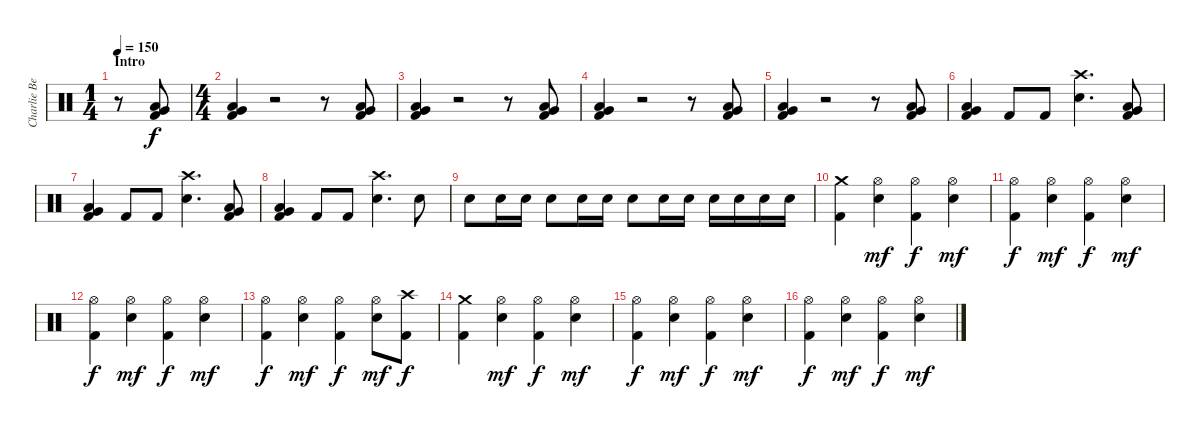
\track ("Charlie Benante" "Charlie Be") {instrument percussion}
\staff {score}
\articulation defaults
\ts (1 4)
\section ("" "Intro")
\tempo 150
\clef neutral
\ks c
r.8{dy f} ("Kick (hit) 2" "Low Tom (hit)" "Very Low Tom (hit)").8 |
\ts (4 4)
("Kick (hit) 2" "Low Tom (hit)" "Very Low Tom (hit)").4 r.2 r.8 ("Kick (hit) 2" "Low Tom (hit)" "Very Low Tom (hit)").8 |
("Kick (hit) 2" "Low Tom (hit)" "Very Low Tom (hit)").4 r.2 r.8 ("Kick (hit) 2" "Low Tom (hit)" "Very Low Tom (hit)").8 |
("Kick (hit) 2" "Low Tom (hit)" "Very Low Tom (hit)").4 r.2 r.8 ("Kick (hit) 2" "Low Tom (hit)" "Very Low Tom (hit)").8 |
("Kick (hit) 2" "Low Tom (hit)" "Very Low Tom (hit)").4 r.2 r.8 ("Kick (hit) 2" "Low Tom (hit)" "Very Low Tom (hit)").8 |
("Kick (hit) 2" "Low Tom (hit)" "Very Low Tom (hit)").4 "Kick (hit) 2".8 "Kick (hit) 2".8 ("Crash high (hit)" "Snare (hit) 2").4{d} ("Kick (hit) 2" "Low Tom (hit)" "Very Low Tom (hit)").8 |
("Kick (hit) 2" "Low Tom (hit)" "Very Low Tom (hit)").4 "Kick (hit) 2".8 "Kick (hit) 2".8 ("Crash high (hit)" "Snare (hit) 2").4{d} ("Kick (hit) 2" "Low Tom (hit)" "Very Low Tom (hit)").8 |
("Kick (hit) 2" "Low Tom (hit)" "Very Low Tom (hit)").4 "Kick (hit) 2".8 "Kick (hit) 2".8 ("Crash high (hit)" "Snare (hit) 2").4{d} "Snare (hit) 2".8 |
"Snare (hit) 2".8 "Snare (hit) 2".16 "Snare (hit) 2".16 "Snare (hit) 2".8 "Snare (hit) 2".16 "Snare (hit) 2".16 "Snare (hit) 2".8 "Snare (hit) 2".16 "Snare (hit) 2".16 "Snare (hit) 2".16 "Snare (hit) 2".16 "Snare (hit) 2".16 "Snare (hit) 2".16 |
("Kick (hit) 2" "Crash medium (hit)").4 ("Hi-Hat (open)" "Snare (hit) 2").4{dy mf} ("Kick (hit) 2" "Hi-Hat (open)").4{dy f} ("Hi-Hat (open)" "Snare (hit) 2").4{dy mf} |
("Kick (hit) 2" "Hi-Hat (open)").4{dy f} ("Hi-Hat (open)" "Snare (hit) 2").4{dy mf} ("Kick (hit) 2" "Hi-Hat (open)").4{dy f} ("Hi-Hat (open)" "Snare (hit) 2").4{dy mf} |
("Kick (hit) 2" "Hi-Hat (open)").4{dy f} ("Hi-Hat (open)" "Snare (hit) 2").4{dy mf} ("Kick (hit) 2" "Hi-Hat (open)").4{dy f} ("Hi-Hat (open)" "Snare (hit) 2").4{dy mf} |
("Kick (hit) 2" "Hi-Hat (open)").4{dy f} ("Hi-Hat (open)" "Snare (hit) 2").4{dy mf} ("Kick (hit) 2" "Hi-Hat (open)").4{dy f} ("Hi-Hat (open)" "Snare (hit) 2").8{dy mf} ("Kick (hit) 2" "Crash high (hit)").8{dy f} |
("Kick (hit) 2" "Crash medium (hit)").4 ("Hi-Hat (open)" "Snare (hit) 2").4{dy mf} ("Kick (hit) 2" "Hi-Hat (open)").4{dy f} ("Hi-Hat (open)" "Snare (hit) 2").4{dy mf} |
("Kick (hit) 2" "Hi-Hat (open)").4{dy f} ("Hi-Hat (open)" "Snare (hit) 2").4{dy mf} ("Kick (hit) 2" "Hi-Hat (open)").4{dy f} ("Hi-Hat (open)" "Snare (hit) 2").4{dy mf} |
("Kick (hit) 2" "Hi-Hat (open)").4{dy f} ("Hi-Hat (open)" "Snare (hit) 2").4{dy mf} ("Kick (hit) 2" "Hi-Hat (open)").4{dy f} ("Hi-Hat (open)" "Snare (hit) 2").4{dy mf}
